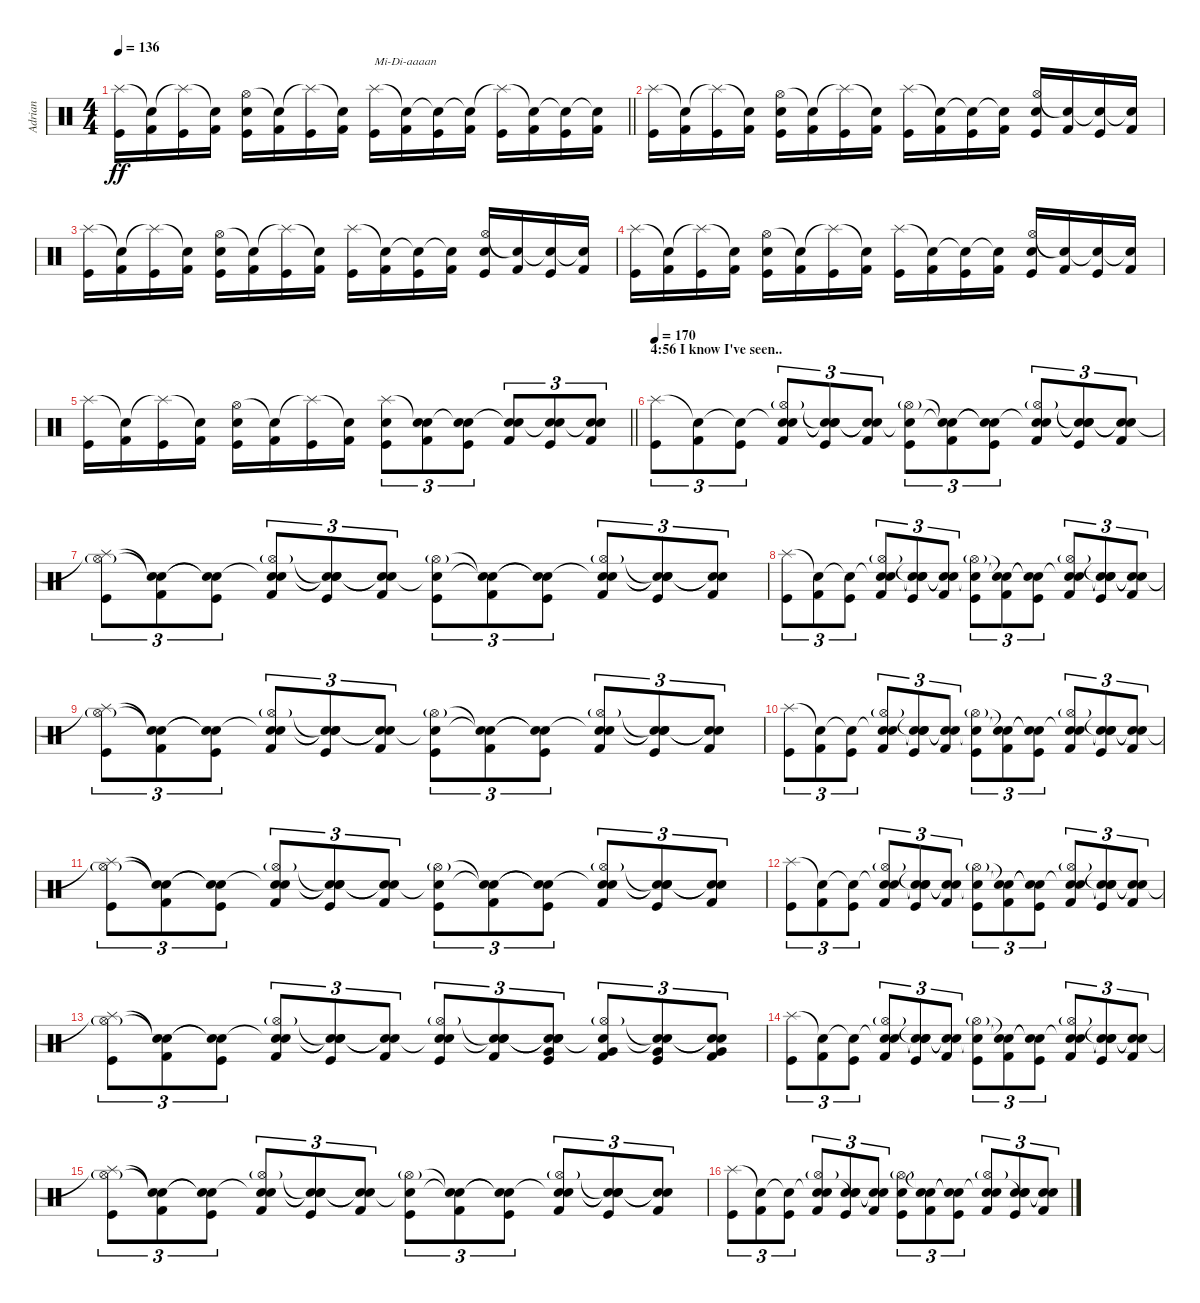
\track ("Adrian" "Adrian") {instrument percussion}
\staff {score}
\articulation defaults
\ts (4 4)
\tempo 136
\clef neutral
\barLineRight lightlight
\ks c
("Splash (hit)" "Kick (hit)").16{dy ff} ("Snare (hit)"{t} "Kick (hit) 2").16 ("Splash (hit)"{t} "Kick (hit)").16 ("Snare (hit)"{t} "Kick (hit) 2").16 ("Hi-Hat (open)" "Electric Snare (hit)" "Kick (hit)").16 ("Snare (hit)"{t} "Kick (hit) 2").16 ("Splash (hit)"{t} "Kick (hit)").16 ("Snare (hit)"{t} "Kick (hit) 2").16 ("Splash (hit)" "Kick (hit)").16{txt "Mi-Di-aaaan"} ("Snare (hit)"{t} "Kick (hit) 2").16 ("Snare (hit)"{t} "Kick (hit)").16 ("Snare (hit)"{t} "Kick (hit) 2").16 ("Splash (hit)"{t} "Kick (hit)").16 ("Snare (hit)"{t} "Kick (hit) 2").16 ("Snare (hit)"{t} "Kick (hit)").16 ("Snare (hit)"{t} "Kick (hit) 2").16 |
("Splash (hit)" "Kick (hit)").16 ("Snare (hit)"{t} "Kick (hit) 2").16 ("Splash (hit)"{t} "Kick (hit)").16 ("Snare (hit)"{t} "Kick (hit) 2").16 ("Hi-Hat (open)" "Electric Snare (hit)" "Kick (hit)").16 ("Snare (hit)"{t} "Kick (hit) 2").16 ("Splash (hit)"{t} "Kick (hit)").16 ("Snare (hit)"{t} "Kick (hit) 2").16 ("Splash (hit)" "Kick (hit)").16 ("Snare (hit)"{t} "Kick (hit) 2").16 ("Snare (hit)"{t} "Kick (hit)").16 ("Snare (hit)"{t} "Kick (hit) 2").16 ("Hi-Hat (open)" "Electric Snare (hit)" "Kick (hit)").16 ("Snare (hit)"{t} "Kick (hit) 2").16 ("Snare (hit)"{t} "Kick (hit)").16 ("Snare (hit)"{t} "Kick (hit) 2").16 |
("Splash (hit)" "Kick (hit)").16 ("Snare (hit)"{t} "Kick (hit) 2").16 ("Splash (hit)"{t} "Kick (hit)").16 ("Snare (hit)"{t} "Kick (hit) 2").16 ("Hi-Hat (open)" "Electric Snare (hit)" "Kick (hit)").16 ("Snare (hit)"{t} "Kick (hit) 2").16 ("Splash (hit)"{t} "Kick (hit)").16 ("Snare (hit)"{t} "Kick (hit) 2").16 ("Splash (hit)" "Kick (hit)").16 ("Snare (hit)"{t} "Kick (hit) 2").16 ("Snare (hit)"{t} "Kick (hit)").16 ("Snare (hit)"{t} "Kick (hit) 2").16 ("Hi-Hat (open)" "Electric Snare (hit)" "Kick (hit)").16 ("Snare (hit)"{t} "Kick (hit) 2").16 ("Snare (hit)"{t} "Kick (hit)").16 ("Snare (hit)"{t} "Kick (hit) 2").16 |
("Splash (hit)" "Kick (hit)").16 ("Snare (hit)"{t} "Kick (hit) 2").16 ("Splash (hit)"{t} "Kick (hit)").16 ("Snare (hit)"{t} "Kick (hit) 2").16 ("Hi-Hat (open)" "Electric Snare (hit)" "Kick (hit)").16 ("Snare (hit)"{t} "Kick (hit) 2").16 ("Splash (hit)"{t} "Kick (hit)").16 ("Snare (hit)"{t} "Kick (hit) 2").16 ("Splash (hit)" "Kick (hit)").16 ("Snare (hit)"{t} "Kick (hit) 2").16 ("Snare (hit)"{t} "Kick (hit)").16 ("Snare (hit)"{t} "Kick (hit) 2").16 ("Hi-Hat (open)" "Electric Snare (hit)" "Kick (hit)").16 ("Snare (hit)"{t} "Kick (hit) 2").16 ("Snare (hit)"{t} "Kick (hit)").16 ("Snare (hit)"{t} "Kick (hit) 2").16 |
\barLineRight lightlight
("Splash (hit)" "Kick (hit)").16 ("Snare (hit)"{t} "Kick (hit) 2").16 ("Splash (hit)"{t} "Kick (hit)").16 ("Snare (hit)"{t} "Kick (hit) 2").16 ("Hi-Hat (open)" "Electric Snare (hit)" "Kick (hit)").16 ("Snare (hit)"{t} "Kick (hit) 2").16 ("Splash (hit)"{t} "Kick (hit)").16 ("Snare (hit)"{t} "Kick (hit) 2").16 ("Splash (hit)" "Electric Snare (hit)" "Kick (hit)").8{tu (3 2)} ("Snare (hit)"{t} "Electric Snare (hit)" "Kick (hit) 2").8{tu (3 2)} ("Snare (hit)"{t} "Electric Snare (hit)" "Kick (hit)").8{tu (3 2)} ("Snare (hit)"{t} "Electric Snare (hit)" "Kick (hit) 2").8{tu (3 2)} ("Snare (hit)"{t} "Electric Snare (hit)" "Kick (hit)").8{tu (3 2)} ("Snare (hit)"{t} "Electric Snare (hit)" "Kick (hit) 2").8{tu (3 2)} |
\section ("" "4:56 I know I've seen..")
\tempo 170
("Splash (hit)" "Kick (hit)").8{tu (3 2)} ("Snare (hit)"{t} "Kick (hit) 2").8{tu (3 2)} ("Snare (hit)"{t} "Kick (hit)").8{tu (3 2)} ("Snare (hit)"{t} "Hi-Hat (open)"{g} "Electric Snare (hit)" "Kick (hit) 2").8{tu (3 2)} ("Snare (hit)"{t} "Snare (hit)"{t} "Snare (hit)"{t} "Kick (hit)").8{tu (3 2)} ("Snare (hit)"{t} "Snare (hit)"{t} "Kick (hit) 2").8{tu (3 2)} ("Snare (hit)"{t} "Hi-Hat (open)"{g} "Kick (hit)").8{tu (3 2)} ("Snare (hit)"{t} "Snare (hit)"{t} "Kick (hit) 2").8{tu (3 2)} ("Snare (hit)"{t} "Snare (hit)"{t} "Kick (hit)").8{tu (3 2)} ("Snare (hit)"{t} "Hi-Hat (open)"{g} "Electric Snare (hit)" "Kick (hit) 2").8{tu (3 2)} ("Snare (hit)"{t} "Snare (hit)"{t} "Snare (hit)"{t} "Kick (hit)").8{tu (3 2)} ("Snare (hit)"{t} "Snare (hit)"{t} "Kick (hit) 2").8{tu (3 2)} |
("Splash (hit)"{t} "Hi-Hat (open)"{g} "Kick (hit)").8{tu (3 2)} ("Snare (hit)"{t} "Snare (hit)"{t} "Kick (hit) 2").8{tu (3 2)} ("Snare (hit)"{t} "Snare (hit)"{t} "Kick (hit)").8{tu (3 2)} ("Snare (hit)"{t} "Hi-Hat (open)"{g} "Electric Snare (hit)" "Kick (hit) 2").8{tu (3 2)} ("Snare (hit)"{t} "Snare (hit)"{t} "Snare (hit)"{t} "Kick (hit)").8{tu (3 2)} ("Snare (hit)"{t} "Snare (hit)"{t} "Kick (hit) 2").8{tu (3 2)} ("Snare (hit)"{t} "Hi-Hat (open)"{g} "Kick (hit)").8{tu (3 2)} ("Snare (hit)"{t} "Snare (hit)"{t} "Kick (hit) 2").8{tu (3 2)} ("Snare (hit)"{t} "Snare (hit)"{t} "Kick (hit)").8{tu (3 2)} ("Snare (hit)"{t} "Hi-Hat (open)"{g} "Electric Snare (hit)" "Kick (hit) 2").8{tu (3 2)} ("Snare (hit)"{t} "Snare (hit)"{t} "Snare (hit)"{t} "Kick (hit)").8{tu (3 2)} ("Snare (hit)"{t} "Snare (hit)"{t} "Kick (hit) 2").8{tu (3 2)} |
("Splash (hit)" "Kick (hit)").8{tu (3 2)} ("Snare (hit)"{t} "Kick (hit) 2").8{tu (3 2)} ("Snare (hit)"{t} "Kick (hit)").8{tu (3 2)} ("Snare (hit)"{t} "Hi-Hat (open)"{g} "Electric Snare (hit)" "Kick (hit) 2").8{tu (3 2)} ("Snare (hit)"{t} "Snare (hit)"{t} "Snare (hit)"{t} "Kick (hit)").8{tu (3 2)} ("Snare (hit)"{t} "Snare (hit)"{t} "Kick (hit) 2").8{tu (3 2)} ("Snare (hit)"{t} "Hi-Hat (open)"{g} "Kick (hit)").8{tu (3 2)} ("Snare (hit)"{t} "Snare (hit)"{t} "Kick (hit) 2").8{tu (3 2)} ("Snare (hit)"{t} "Snare (hit)"{t} "Kick (hit)").8{tu (3 2)} ("Snare (hit)"{t} "Hi-Hat (open)"{g} "Electric Snare (hit)" "Kick (hit) 2").8{tu (3 2)} ("Snare (hit)"{t} "Snare (hit)"{t} "Snare (hit)"{t} "Kick (hit)").8{tu (3 2)} ("Snare (hit)"{t} "Snare (hit)"{t} "Kick (hit) 2").8{tu (3 2)} |
("Splash (hit)"{t} "Hi-Hat (open)"{g} "Kick (hit)").8{tu (3 2)} ("Snare (hit)"{t} "Snare (hit)"{t} "Kick (hit) 2").8{tu (3 2)} ("Snare (hit)"{t} "Snare (hit)"{t} "Kick (hit)").8{tu (3 2)} ("Snare (hit)"{t} "Hi-Hat (open)"{g} "Electric Snare (hit)" "Kick (hit) 2").8{tu (3 2)} ("Snare (hit)"{t} "Snare (hit)"{t} "Snare (hit)"{t} "Kick (hit)").8{tu (3 2)} ("Snare (hit)"{t} "Snare (hit)"{t} "Kick (hit) 2").8{tu (3 2)} ("Snare (hit)"{t} "Hi-Hat (open)"{g} "Kick (hit)").8{tu (3 2)} ("Snare (hit)"{t} "Snare (hit)"{t} "Kick (hit) 2").8{tu (3 2)} ("Snare (hit)"{t} "Snare (hit)"{t} "Kick (hit)").8{tu (3 2)} ("Snare (hit)"{t} "Hi-Hat (open)"{g} "Electric Snare (hit)" "Kick (hit) 2").8{tu (3 2)} ("Snare (hit)"{t} "Snare (hit)"{t} "Snare (hit)"{t} "Kick (hit)").8{tu (3 2)} ("Snare (hit)"{t} "Snare (hit)"{t} "Kick (hit) 2").8{tu (3 2)} |
("Splash (hit)" "Kick (hit)").8{tu (3 2)} ("Snare (hit)"{t} "Kick (hit) 2").8{tu (3 2)} ("Snare (hit)"{t} "Kick (hit)").8{tu (3 2)} ("Snare (hit)"{t} "Hi-Hat (open)"{g} "Electric Snare (hit)" "Kick (hit) 2").8{tu (3 2)} ("Snare (hit)"{t} "Snare (hit)"{t} "Snare (hit)"{t} "Kick (hit)").8{tu (3 2)} ("Snare (hit)"{t} "Snare (hit)"{t} "Kick (hit) 2").8{tu (3 2)} ("Snare (hit)"{t} "Hi-Hat (open)"{g} "Kick (hit)").8{tu (3 2)} ("Snare (hit)"{t} "Snare (hit)"{t} "Kick (hit) 2").8{tu (3 2)} ("Snare (hit)"{t} "Snare (hit)"{t} "Kick (hit)").8{tu (3 2)} ("Snare (hit)"{t} "Hi-Hat (open)"{g} "Electric Snare (hit)" "Kick (hit) 2").8{tu (3 2)} ("Snare (hit)"{t} "Snare (hit)"{t} "Snare (hit)"{t} "Kick (hit)").8{tu (3 2)} ("Snare (hit)"{t} "Snare (hit)"{t} "Kick (hit) 2").8{tu (3 2)} |
("Splash (hit)"{t} "Hi-Hat (open)"{g} "Kick (hit)").8{tu (3 2)} ("Snare (hit)"{t} "Snare (hit)"{t} "Kick (hit) 2").8{tu (3 2)} ("Snare (hit)"{t} "Snare (hit)"{t} "Kick (hit)").8{tu (3 2)} ("Snare (hit)"{t} "Hi-Hat (open)"{g} "Electric Snare (hit)" "Kick (hit) 2").8{tu (3 2)} ("Snare (hit)"{t} "Snare (hit)"{t} "Snare (hit)"{t} "Kick (hit)").8{tu (3 2)} ("Snare (hit)"{t} "Snare (hit)"{t} "Kick (hit) 2").8{tu (3 2)} ("Snare (hit)"{t} "Hi-Hat (open)"{g} "Kick (hit)").8{tu (3 2)} ("Snare (hit)"{t} "Snare (hit)"{t} "Kick (hit) 2").8{tu (3 2)} ("Snare (hit)"{t} "Snare (hit)"{t} "Kick (hit)").8{tu (3 2)} ("Snare (hit)"{t} "Hi-Hat (open)"{g} "Electric Snare (hit)" "Kick (hit) 2").8{tu (3 2)} ("Snare (hit)"{t} "Snare (hit)"{t} "Snare (hit)"{t} "Kick (hit)").8{tu (3 2)} ("Snare (hit)"{t} "Snare (hit)"{t} "Kick (hit) 2").8{tu (3 2)} |
("Splash (hit)" "Kick (hit)").8{tu (3 2)} ("Snare (hit)"{t} "Kick (hit) 2").8{tu (3 2)} ("Snare (hit)"{t} "Kick (hit)").8{tu (3 2)} ("Snare (hit)"{t} "Hi-Hat (open)"{g} "Electric Snare (hit)" "Kick (hit) 2").8{tu (3 2)} ("Snare (hit)"{t} "Snare (hit)"{t} "Snare (hit)"{t} "Kick (hit)").8{tu (3 2)} ("Snare (hit)"{t} "Snare (hit)"{t} "Kick (hit) 2").8{tu (3 2)} ("Snare (hit)"{t} "Hi-Hat (open)"{g} "Kick (hit)").8{tu (3 2)} ("Snare (hit)"{t} "Snare (hit)"{t} "Kick (hit) 2").8{tu (3 2)} ("Snare (hit)"{t} "Snare (hit)"{t} "Kick (hit)").8{tu (3 2)} ("Snare (hit)"{t} "Hi-Hat (open)"{g} "Electric Snare (hit)" "Kick (hit) 2").8{tu (3 2)} ("Snare (hit)"{t} "Snare (hit)"{t} "Snare (hit)"{t} "Kick (hit)").8{tu (3 2)} ("Snare (hit)"{t} "Snare (hit)"{t} "Kick (hit) 2").8{tu (3 2)} |
("Splash (hit)"{t} "Hi-Hat (open)"{g} "Kick (hit)").8{tu (3 2)} ("Snare (hit)"{t} "Snare (hit)"{t} "Kick (hit) 2").8{tu (3 2)} ("Snare (hit)"{t} "Snare (hit)"{t} "Kick (hit)").8{tu (3 2)} ("Snare (hit)"{t} "Hi-Hat (open)"{g} "Electric Snare (hit)" "Kick (hit) 2").8{tu (3 2)} ("Snare (hit)"{t} "Snare (hit)"{t} "Snare (hit)"{t} "Kick (hit)").8{tu (3 2)} ("Snare (hit)"{t} "Snare (hit)"{t} "Kick (hit) 2").8{tu (3 2)} ("Snare (hit)"{t} "Hi-Hat (open)"{g} "Electric Snare (hit)" "Kick (hit)").8{tu (3 2)} ("Snare (hit)"{t} "Snare (hit)"{t} "Electric Snare (hit)" "Kick (hit) 2").8{tu (3 2)} ("Snare (hit)"{t} "Snare (hit)"{t} "Electric Snare (hit)" "Very Low Tom (hit)" "Kick (hit)").8{tu (3 2)} ("Snare (hit)"{t} "Hi-Hat (open)"{g} "Very Low Tom (hit)" "Kick (hit) 2").8{tu (3 2)} ("Snare (hit)"{t} "Snare (hit)"{t} "Very Low Tom (hit)" "Kick (hit)").8{tu (3 2)} ("Snare (hit)"{t} "Snare (hit)"{t} "Very Low Tom (hit)" "Kick (hit) 2").8{tu (3 2)} |
("Splash (hit)" "Kick (hit)").8{tu (3 2)} ("Snare (hit)"{t} "Kick (hit) 2").8{tu (3 2)} ("Snare (hit)"{t} "Kick (hit)").8{tu (3 2)} ("Snare (hit)"{t} "Hi-Hat (open)"{g} "Electric Snare (hit)" "Kick (hit) 2").8{tu (3 2)} ("Snare (hit)"{t} "Snare (hit)"{t} "Snare (hit)"{t} "Kick (hit)").8{tu (3 2)} ("Snare (hit)"{t} "Snare (hit)"{t} "Kick (hit) 2").8{tu (3 2)} ("Snare (hit)"{t} "Hi-Hat (open)"{g} "Kick (hit)").8{tu (3 2)} ("Snare (hit)"{t} "Snare (hit)"{t} "Kick (hit) 2").8{tu (3 2)} ("Snare (hit)"{t} "Snare (hit)"{t} "Kick (hit)").8{tu (3 2)} ("Snare (hit)"{t} "Hi-Hat (open)"{g} "Electric Snare (hit)" "Kick (hit) 2").8{tu (3 2)} ("Snare (hit)"{t} "Snare (hit)"{t} "Snare (hit)"{t} "Kick (hit)").8{tu (3 2)} ("Snare (hit)"{t} "Snare (hit)"{t} "Kick (hit) 2").8{tu (3 2)} |
("Splash (hit)"{t} "Hi-Hat (open)"{g} "Kick (hit)").8{tu (3 2)} ("Snare (hit)"{t} "Snare (hit)"{t} "Kick (hit) 2").8{tu (3 2)} ("Snare (hit)"{t} "Snare (hit)"{t} "Kick (hit)").8{tu (3 2)} ("Snare (hit)"{t} "Hi-Hat (open)"{g} "Electric Snare (hit)" "Kick (hit) 2").8{tu (3 2)} ("Snare (hit)"{t} "Snare (hit)"{t} "Snare (hit)"{t} "Kick (hit)").8{tu (3 2)} ("Snare (hit)"{t} "Snare (hit)"{t} "Kick (hit) 2").8{tu (3 2)} ("Snare (hit)"{t} "Hi-Hat (open)"{g} "Kick (hit)").8{tu (3 2)} ("Snare (hit)"{t} "Snare (hit)"{t} "Kick (hit) 2").8{tu (3 2)} ("Snare (hit)"{t} "Snare (hit)"{t} "Kick (hit)").8{tu (3 2)} ("Snare (hit)"{t} "Hi-Hat (open)"{g} "Electric Snare (hit)" "Kick (hit) 2").8{tu (3 2)} ("Snare (hit)"{t} "Snare (hit)"{t} "Snare (hit)"{t} "Kick (hit)").8{tu (3 2)} ("Snare (hit)"{t} "Snare (hit)"{t} "Kick (hit) 2").8{tu (3 2)} |
("Splash (hit)" "Kick (hit)").8{tu (3 2)} ("Snare (hit)"{t} "Kick (hit) 2").8{tu (3 2)} ("Snare (hit)"{t} "Kick (hit)").8{tu (3 2)} ("Snare (hit)"{t} "Hi-Hat (open)"{g} "Electric Snare (hit)" "Kick (hit) 2").8{tu (3 2)} ("Snare (hit)"{t} "Snare (hit)"{t} "Snare (hit)"{t} "Kick (hit)").8{tu (3 2)} ("Snare (hit)"{t} "Snare (hit)"{t} "Kick (hit) 2").8{tu (3 2)} ("Snare (hit)"{t} "Hi-Hat (open)"{g} "Kick (hit)").8{tu (3 2)} ("Snare (hit)"{t} "Snare (hit)"{t} "Kick (hit) 2").8{tu (3 2)} ("Snare (hit)"{t} "Snare (hit)"{t} "Kick (hit)").8{tu (3 2)} ("Snare (hit)"{t} "Hi-Hat (open)"{g} "Electric Snare (hit)" "Kick (hit) 2").8{tu (3 2)} ("Snare (hit)"{t} "Snare (hit)"{t} "Snare (hit)"{t} "Kick (hit)").8{tu (3 2)} ("Snare (hit)"{t} "Snare (hit)"{t} "Kick (hit) 2").8{tu (3 2)}
